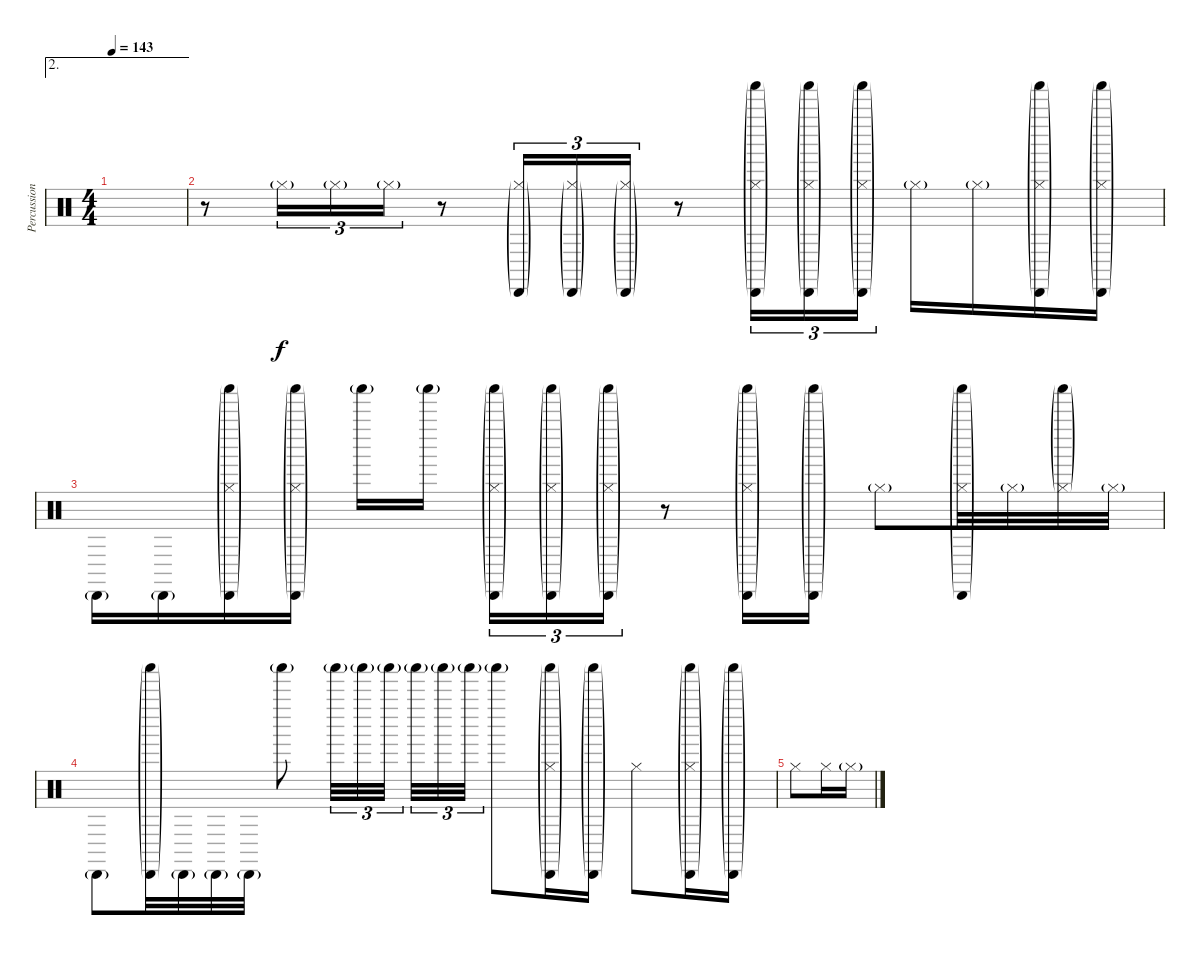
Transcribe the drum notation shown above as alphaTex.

\track ("Percussion" "Percussion") {instrument percussion}
\staff {score}
\articulation defaults
\ae 2
\ts (4 4)
\tempo 143
\clef neutral
\ks c
|
r.8{volume 11} "Hi-Hat (closed)"{g}.16{tu (3 2)} "Hi-Hat (closed)"{g}.16{tu (3 2)} "Hi-Hat (closed)"{g}.16{tu (3 2)} r.8 ("Hi-Hat (closed)"{g} "Cabasa (hit)"{g}).16{tu (3 2)} ("Hi-Hat (closed)"{g} "Cabasa (hit)"{g}).16{tu (3 2)} ("Hi-Hat (closed)"{g} "Cabasa (hit)"{g}).16{tu (3 2)} r.8 ("Hi-Hat (closed)"{g} "Cabasa (hit)"{g} "Shaker (hit)"{g}).16{tu (3 2)} ("Hi-Hat (closed)"{g} "Cabasa (hit)"{g} "Shaker (hit)"{g}).16{tu (3 2)} ("Hi-Hat (closed)"{g} "Cabasa (hit)"{g} "Shaker (hit)"{g}).16{tu (3 2)} "Hi-Hat (closed)"{g}.16 "Hi-Hat (closed)"{g}.16 ("Hi-Hat (closed)"{g} "Cabasa (hit)"{g} "Shaker (hit)"{g}).16 ("Hi-Hat (closed)"{g} "Cabasa (hit)"{g} "Shaker (hit)"{g}).16 |
"Cabasa (hit)"{g}.16 "Cabasa (hit)"{g}.16 ("Hi-Hat (closed)"{g} "Cabasa (hit)"{g} "Shaker (hit)"{g}).16 ("Hi-Hat (closed)"{g} "Cabasa (hit)"{g} "Shaker (hit)"{g}).16 "Shaker (hit)"{g}.16 "Shaker (hit)"{g}.16{beam splitsecondary} ("Hi-Hat (closed)"{g} "Cabasa (hit)"{g} "Shaker (hit)"{g}).16{tu (3 2)} ("Hi-Hat (closed)"{g} "Cabasa (hit)"{g} "Shaker (hit)"{g}).16{tu (3 2)} ("Hi-Hat (closed)"{g} "Cabasa (hit)"{g} "Shaker (hit)"{g}).16{tu (3 2)} r.8 ("Hi-Hat (closed)"{g} "Cabasa (hit)"{g} "Shaker (hit)"{g}).16 ("Cabasa (hit)"{g} "Shaker (hit)"{g}).16 "Hi-Hat (closed)"{g}.8 ("Hi-Hat (closed)"{g} "Cabasa (hit)"{g} "Shaker (hit)"{g}).32 "Hi-Hat (closed)"{g}.32 ("Hi-Hat (closed)"{g} "Shaker (hit)"{g}).32 "Hi-Hat (closed)"{g}.32 |
"Cabasa (hit)"{g}.8 ("Cabasa (hit)"{g} "Shaker (hit)"{g}).32 "Cabasa (hit)"{g}.32 "Cabasa (hit)"{g}.32 "Cabasa (hit)"{g}.32 "Shaker (hit)"{g}.8 "Shaker (hit)"{g}.32{tu (3 2)} "Shaker (hit)"{g}.32{tu (3 2)} "Shaker (hit)"{g}.32{tu (3 2) beam splitsecondary} "Shaker (hit)"{g}.32{tu (3 2)} "Shaker (hit)"{g}.32{tu (3 2)} "Shaker (hit)"{g}.32{tu (3 2)} "Shaker (hit)"{g}.8 ("Hi-Hat (closed)"{g} "Cabasa (hit)"{g} "Shaker (hit)"{g}).16 ("Cabasa (hit)"{g} "Shaker (hit)"{g}).16 "Hi-Hat (closed)".8 ("Hi-Hat (closed)"{g} "Cabasa (hit)"{g} "Shaker (hit)"{g}).16 ("Cabasa (hit)"{g} "Shaker (hit)"{g}).16 |
"Hi-Hat (closed)".8 "Hi-Hat (closed)".16 "Hi-Hat (closed)"{g}.16
